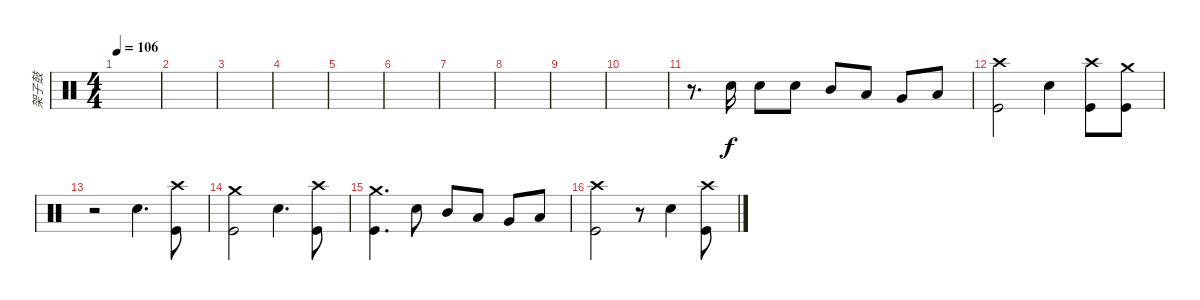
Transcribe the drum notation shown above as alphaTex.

\track ("架子鼓" "架子鼓") {instrument percussion}
\staff {score}
\articulation defaults
\ts (4 4)
\tempo 106
\clef neutral
\ks c
|
|
|
|
|
|
|
|
|
|
r.8{d} "Electric Snare (hit)".16 "Electric Snare (hit)".8 "Electric Snare (hit)".8 "Mid Tom (hit)".8 "Low Tom (hit)".8 "Very Low Tom (hit)".8 "Low Floor Tom (hit)".8 |
("Crash high (hit)" "Kick (hit)").2 "Electric Snare (hit)".4 ("Crash high (hit)" "Kick (hit)").8 ("Crash medium (hit)" "Kick (hit)").8 |
r.2 "Electric Snare (hit)".4{d} ("Crash high (hit)" "Kick (hit)").8 |
("Crash medium (hit)" "Kick (hit)").2 "Electric Snare (hit)".4{d} ("Crash high (hit)" "Kick (hit)").8 |
("Crash medium (hit)" "Kick (hit)").4{d} "Electric Snare (hit)".8 "Mid Tom (hit)".8 "Low Tom (hit)".8 "Very Low Tom (hit)".8 "Low Floor Tom (hit)".8 |
("Crash high (hit)" "Kick (hit)").2 r.8 "Electric Snare (hit)".4 ("Crash high (hit)" "Kick (hit)").8
